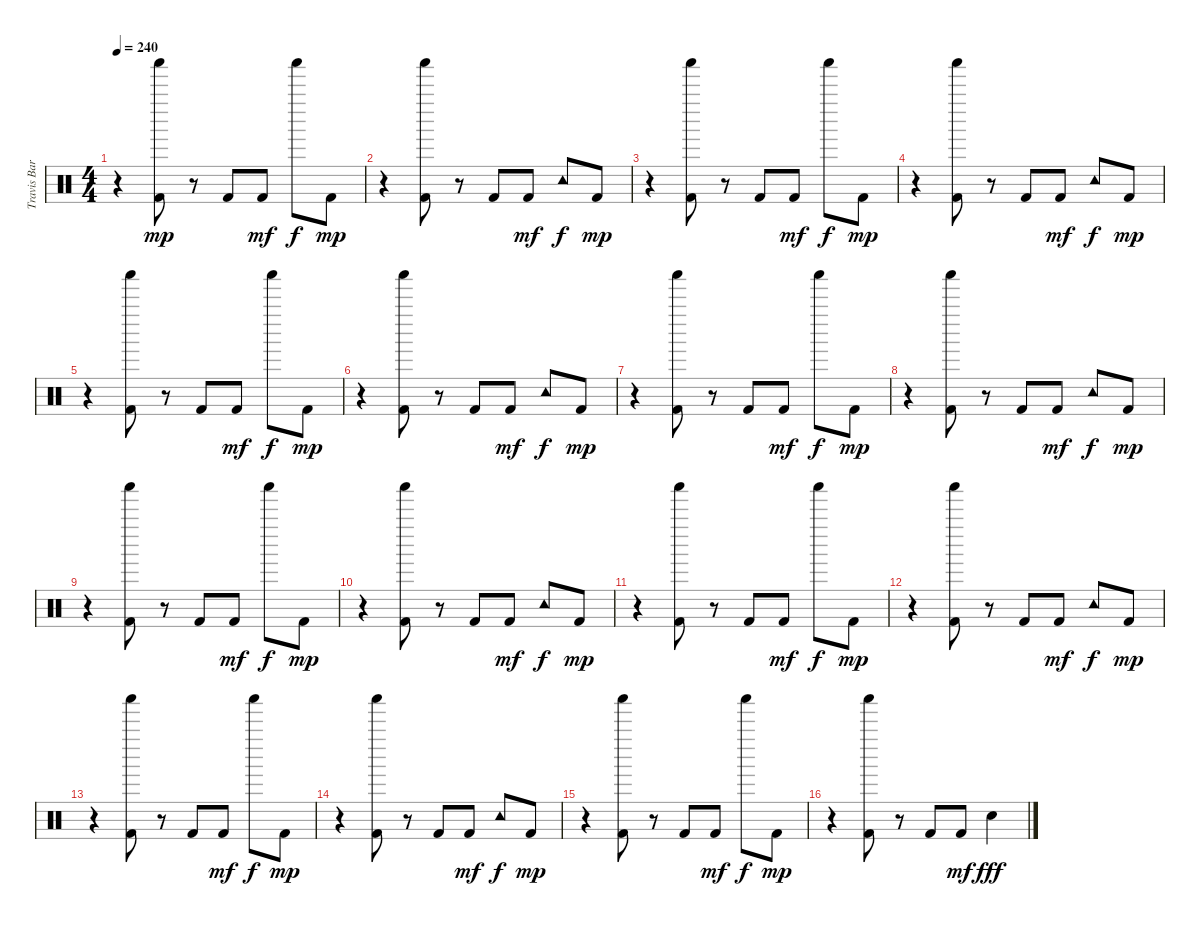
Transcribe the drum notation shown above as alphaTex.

\track ("Travis Barker - Drums" "Travis Bar") {instrument percussion}
\staff {score}
\articulation defaults
\ts (4 4)
\tempo 240
\clef neutral
\ks c
r.4{dy mp} ("Shaker (hit)" "Kick (hit) 2").8 r.8 "Kick (hit) 2".8 "Kick (hit) 2".8{dy mf} "Shaker (hit)".8{dy f} "Kick (hit) 2".8{dy mp} |
r.4 ("Shaker (hit)" "Kick (hit) 2").8 r.8 "Kick (hit) 2".8 "Kick (hit) 2".8{dy mf} "Tambourine (hit)".8{dy f} "Kick (hit) 2".8{dy mp} |
r.4 ("Shaker (hit)" "Kick (hit) 2").8 r.8 "Kick (hit) 2".8 "Kick (hit) 2".8{dy mf} "Shaker (hit)".8{dy f} "Kick (hit) 2".8{dy mp} |
r.4 ("Shaker (hit)" "Kick (hit) 2").8 r.8 "Kick (hit) 2".8 "Kick (hit) 2".8{dy mf} "Tambourine (hit)".8{dy f} "Kick (hit) 2".8{dy mp} |
r.4 ("Shaker (hit)" "Kick (hit) 2").8 r.8 "Kick (hit) 2".8 "Kick (hit) 2".8{dy mf} "Shaker (hit)".8{dy f} "Kick (hit) 2".8{dy mp} |
r.4 ("Shaker (hit)" "Kick (hit) 2").8 r.8 "Kick (hit) 2".8 "Kick (hit) 2".8{dy mf} "Tambourine (hit)".8{dy f} "Kick (hit) 2".8{dy mp} |
r.4 ("Shaker (hit)" "Kick (hit) 2").8 r.8 "Kick (hit) 2".8 "Kick (hit) 2".8{dy mf} "Shaker (hit)".8{dy f} "Kick (hit) 2".8{dy mp} |
r.4 ("Shaker (hit)" "Kick (hit) 2").8 r.8 "Kick (hit) 2".8 "Kick (hit) 2".8{dy mf} "Tambourine (hit)".8{dy f} "Kick (hit) 2".8{dy mp} |
r.4 ("Shaker (hit)" "Kick (hit) 2").8 r.8 "Kick (hit) 2".8 "Kick (hit) 2".8{dy mf} "Shaker (hit)".8{dy f} "Kick (hit) 2".8{dy mp} |
r.4 ("Shaker (hit)" "Kick (hit) 2").8 r.8 "Kick (hit) 2".8 "Kick (hit) 2".8{dy mf} "Tambourine (hit)".8{dy f} "Kick (hit) 2".8{dy mp} |
r.4 ("Shaker (hit)" "Kick (hit) 2").8 r.8 "Kick (hit) 2".8 "Kick (hit) 2".8{dy mf} "Shaker (hit)".8{dy f} "Kick (hit) 2".8{dy mp} |
r.4 ("Shaker (hit)" "Kick (hit) 2").8 r.8 "Kick (hit) 2".8 "Kick (hit) 2".8{dy mf} "Tambourine (hit)".8{dy f} "Kick (hit) 2".8{dy mp} |
r.4 ("Shaker (hit)" "Kick (hit) 2").8 r.8 "Kick (hit) 2".8 "Kick (hit) 2".8{dy mf} "Shaker (hit)".8{dy f} "Kick (hit) 2".8{dy mp} |
r.4 ("Shaker (hit)" "Kick (hit) 2").8 r.8 "Kick (hit) 2".8 "Kick (hit) 2".8{dy mf} "Tambourine (hit)".8{dy f} "Kick (hit) 2".8{dy mp} |
r.4 ("Shaker (hit)" "Kick (hit) 2").8 r.8 "Kick (hit) 2".8 "Kick (hit) 2".8{dy mf} "Shaker (hit)".8{dy f} "Kick (hit) 2".8{dy mp} |
r.4 ("Shaker (hit)" "Kick (hit) 2").8 r.8 "Kick (hit) 2".8 "Kick (hit) 2".8{dy mf} "Electric Snare (hit)".4{dy fff}
